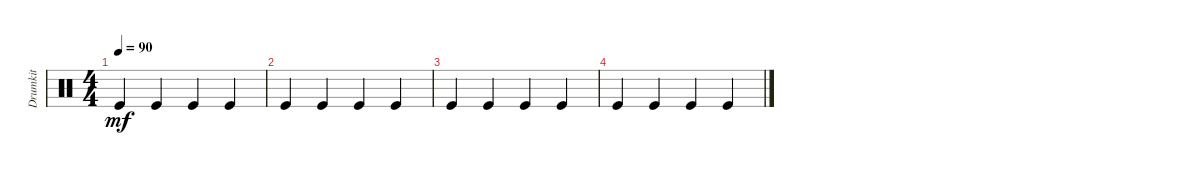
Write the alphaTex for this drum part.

\track ("Drumkit" "Drumkit") {instrument percussion}
\staff {score}
\articulation defaults
\ts (4 4)
\tempo 90
\clef neutral
\ks c "Kick (hit)".4{dy mf} "Kick (hit)".4 "Kick (hit)".4 "Kick (hit)".4
|
"Kick (hit)".4 "Kick (hit)".4 "Kick (hit)".4 "Kick (hit)".4 |
"Kick (hit)".4 "Kick (hit)".4 "Kick (hit)".4 "Kick (hit)".4 |
"Kick (hit)".4 "Kick (hit)".4 "Kick (hit)".4 "Kick (hit)".4
